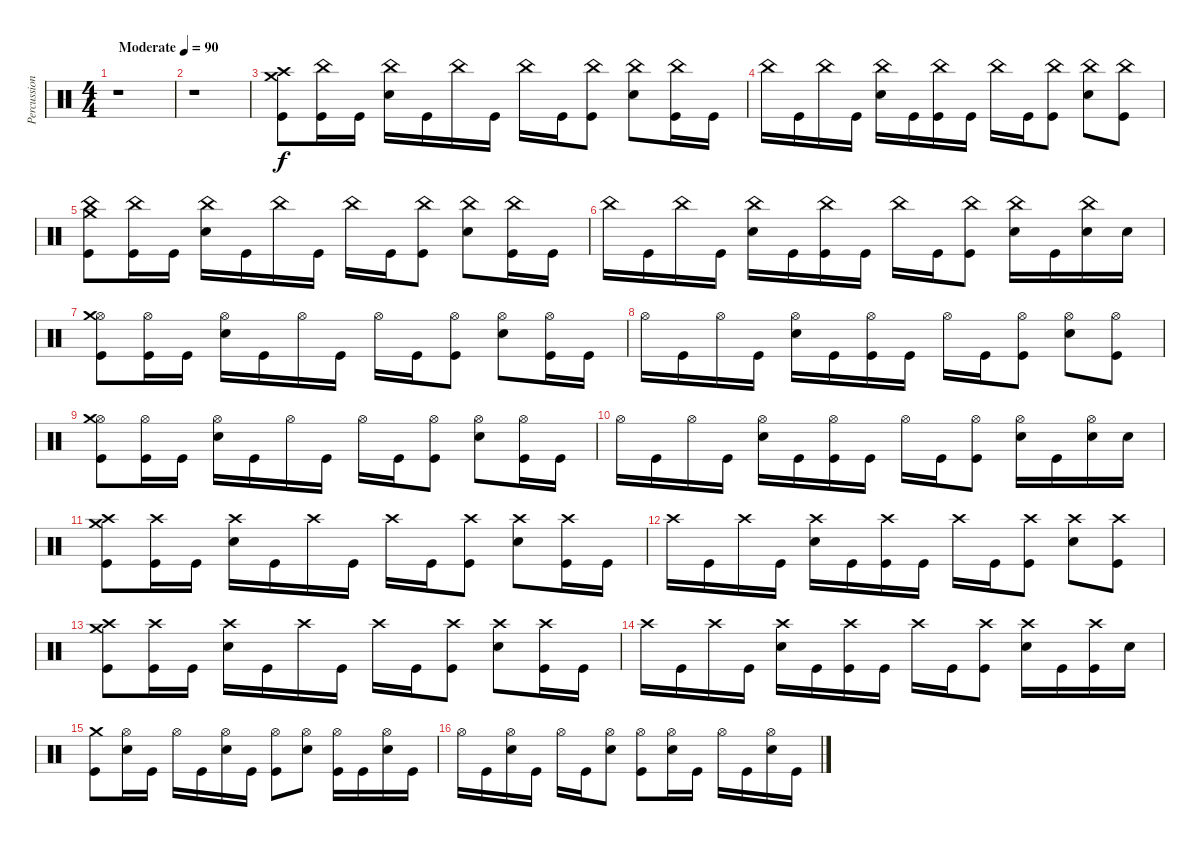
\track ("Percussion" "Percussion") {instrument percussion}
\staff {score}
\articulation defaults
\ts (4 4)
\tempo (90 "Moderate")
\clef neutral
\ks c
r.1{dy f} |
r.1 |
("Kick (hit)" "Crash high (hit)" "Crash medium (hit)").8 ("Kick (hit)" "China (hit)").16 "Kick (hit)".16 ("Snare (hit) 2" "China (hit)").16 "Kick (hit)".16 "China (hit)".16 "Kick (hit)".16 "China (hit)".16 "Kick (hit)".16 ("Kick (hit)" "China (hit)").8 ("Snare (hit) 2" "China (hit)").8 ("Kick (hit)" "China (hit)").16 "Kick (hit)".16 |
"China (hit)".16 "Kick (hit)".16 "China (hit)".16 "Kick (hit)".16 ("Snare (hit) 2" "China (hit)").16 "Kick (hit)".16 ("Kick (hit)" "China (hit)").16 "Kick (hit)".16 "China (hit)".16 "Kick (hit)".16 ("Kick (hit)" "China (hit)").8 ("Snare (hit) 2" "China (hit)").8 ("Kick (hit)" "China (hit)").8 |
("Kick (hit)" "China (hit)" "Crash medium (hit)").8 ("Kick (hit)" "China (hit)").16 "Kick (hit)".16 ("Snare (hit) 2" "China (hit)").16 "Kick (hit)".16 "China (hit)".16 "Kick (hit)".16 "China (hit)".16 "Kick (hit)".16 ("Kick (hit)" "China (hit)").8 ("Snare (hit) 2" "China (hit)").8 ("Kick (hit)" "China (hit)").16 "Kick (hit)".16 |
"China (hit)".16 "Kick (hit)".16 "China (hit)".16 "Kick (hit)".16 ("Snare (hit) 2" "China (hit)").16 "Kick (hit)".16 ("Kick (hit)" "China (hit)").16 "Kick (hit)".16 "China (hit)".16 "Kick (hit)".16 ("Kick (hit)" "China (hit)").8 ("Snare (hit) 2" "China (hit)").16 "Kick (hit)".16 ("Snare (hit) 2" "China (hit)").16 "Snare (hit) 2".16 |
("Kick (hit)" "Hi-Hat (open)" "Crash medium (hit)").8 ("Kick (hit)" "Hi-Hat (open)").16 "Kick (hit)".16 ("Snare (hit) 2" "Hi-Hat (open)").16 "Kick (hit)".16 "Hi-Hat (open)".16 "Kick (hit)".16 "Hi-Hat (open)".16 "Kick (hit)".16 ("Kick (hit)" "Hi-Hat (open)").8 ("Snare (hit) 2" "Hi-Hat (open)").8 ("Kick (hit)" "Hi-Hat (open)").16 "Kick (hit)".16 |
"Hi-Hat (open)".16 "Kick (hit)".16 "Hi-Hat (open)".16 "Kick (hit)".16 ("Snare (hit) 2" "Hi-Hat (open)").16 "Kick (hit)".16 ("Kick (hit)" "Hi-Hat (open)").16 "Kick (hit)".16 "Hi-Hat (open)".16 "Kick (hit)".16 ("Kick (hit)" "Hi-Hat (open)").8 ("Snare (hit) 2" "Hi-Hat (open)").8 ("Kick (hit)" "Hi-Hat (open)").8 |
("Kick (hit)" "Hi-Hat (open)" "Crash medium (hit)").8 ("Kick (hit)" "Hi-Hat (open)").16 "Kick (hit)".16 ("Snare (hit) 2" "Hi-Hat (open)").16 "Kick (hit)".16 "Hi-Hat (open)".16 "Kick (hit)".16 "Hi-Hat (open)".16 "Kick (hit)".16 ("Kick (hit)" "Hi-Hat (open)").8 ("Snare (hit) 2" "Hi-Hat (open)").8 ("Kick (hit)" "Hi-Hat (open)").16 "Kick (hit)".16 |
"Hi-Hat (open)".16 "Kick (hit)".16 "Hi-Hat (open)".16 "Kick (hit)".16 ("Snare (hit) 2" "Hi-Hat (open)").16 "Kick (hit)".16 ("Kick (hit)" "Hi-Hat (open)").16 "Kick (hit)".16 "Hi-Hat (open)".16 "Kick (hit)".16 ("Kick (hit)" "Hi-Hat (open)").8 ("Snare (hit) 2" "Hi-Hat (open)").16 "Kick (hit)".16 ("Snare (hit) 2" "Hi-Hat (open)").16 "Snare (hit) 2".16 |
("Kick (hit)" "Crash high (hit)" "Crash medium (hit)").8 ("Kick (hit)" "Crash high (hit)").16 "Kick (hit)".16 ("Snare (hit) 2" "Crash high (hit)").16 "Kick (hit)".16 "Crash high (hit)".16 "Kick (hit)".16 "Crash high (hit)".16 "Kick (hit)".16 ("Kick (hit)" "Crash high (hit)").8 ("Snare (hit) 2" "Crash high (hit)").8 ("Kick (hit)" "Crash high (hit)").16 "Kick (hit)".16 |
"Crash high (hit)".16 "Kick (hit)".16 "Crash high (hit)".16 "Kick (hit)".16 ("Snare (hit) 2" "Crash high (hit)").16 "Kick (hit)".16 ("Kick (hit)" "Crash high (hit)").16 "Kick (hit)".16 "Crash high (hit)".16 "Kick (hit)".16 ("Kick (hit)" "Crash high (hit)").8 ("Snare (hit) 2" "Crash high (hit)").8 ("Kick (hit)" "Crash high (hit)").8 |
("Kick (hit)" "Crash high (hit)" "Crash medium (hit)").8 ("Kick (hit)" "Crash high (hit)").16 "Kick (hit)".16 ("Snare (hit) 2" "Crash high (hit)").16 "Kick (hit)".16 "Crash high (hit)".16 "Kick (hit)".16 "Crash high (hit)".16 "Kick (hit)".16 ("Kick (hit)" "Crash high (hit)").8 ("Snare (hit) 2" "Crash high (hit)").8 ("Kick (hit)" "Crash high (hit)").16 "Kick (hit)".16 |
"Crash high (hit)".16 "Kick (hit)".16 "Crash high (hit)".16 "Kick (hit)".16 ("Snare (hit) 2" "Crash high (hit)").16 "Kick (hit)".16 ("Kick (hit)" "Crash high (hit)").16 "Kick (hit)".16 "Crash high (hit)".16 "Kick (hit)".16 ("Kick (hit)" "Crash high (hit)").8 ("Snare (hit) 2" "Crash high (hit)").16 "Kick (hit)".16 ("Kick (hit)" "Crash high (hit)").16 "Snare (hit) 2".16 |
("Kick (hit)" "Crash medium (hit)").8 ("Snare (hit) 2" "Hi-Hat (open)").16 "Kick (hit)".16 "Hi-Hat (open)".16 "Kick (hit)".16 ("Snare (hit) 2" "Hi-Hat (open)").16 "Kick (hit)".16 ("Kick (hit)" "Hi-Hat (open)").8 ("Snare (hit) 2" "Hi-Hat (open)").8 ("Kick (hit)" "Hi-Hat (open)").16 "Kick (hit)".16 ("Snare (hit) 2" "Hi-Hat (open)").16 "Kick (hit)".16 |
"Hi-Hat (open)".16 "Kick (hit)".16 ("Snare (hit) 2" "Hi-Hat (open)").16 "Kick (hit)".16 "Hi-Hat (open)".16 "Kick (hit)".16 ("Snare (hit) 2" "Hi-Hat (open)").8 ("Kick (hit)" "Hi-Hat (open)").8 ("Snare (hit) 2" "Hi-Hat (open)").16 "Kick (hit)".16 "Hi-Hat (open)".16 "Kick (hit)".16 ("Snare (hit) 2" "Hi-Hat (open)").16 "Kick (hit)".16
